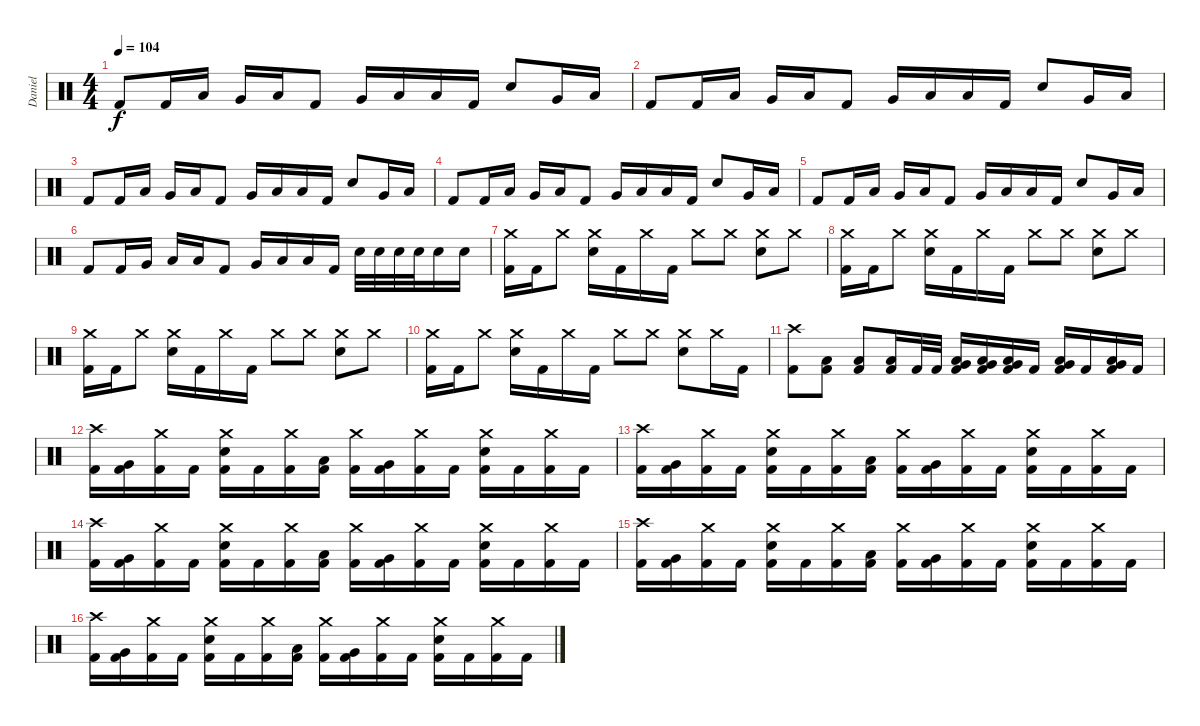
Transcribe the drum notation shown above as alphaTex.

\track ("Daniel" "Daniel") {instrument percussion}
\staff {score}
\articulation defaults
\ts (4 4)
\tempo 104
\clef neutral
\ks c "Kick (hit) 2".8{dy f} "Kick (hit) 2".16 "Low Tom (hit)".16 "Very Low Tom (hit)".16 "Low Tom (hit)".16 "Kick (hit) 2".8 "Very Low Tom (hit)".16 "Low Tom (hit)".16 "Low Floor Tom (hit)".16 "Kick (hit) 2".16 "Snare (hit) 2".8 "Very Low Tom (hit)".16 "Low Tom (hit)".16
|
"Kick (hit) 2".8 "Kick (hit) 2".16 "Low Tom (hit)".16 "Very Low Tom (hit)".16 "Low Tom (hit)".16 "Kick (hit) 2".8 "Very Low Tom (hit)".16 "Low Tom (hit)".16 "Low Floor Tom (hit)".16 "Kick (hit) 2".16 "Snare (hit) 2".8 "Very Low Tom (hit)".16 "Low Tom (hit)".16 |
"Kick (hit) 2".8 "Kick (hit) 2".16 "Low Tom (hit)".16 "Very Low Tom (hit)".16 "Low Tom (hit)".16 "Kick (hit) 2".8 "Very Low Tom (hit)".16 "Low Tom (hit)".16 "Low Floor Tom (hit)".16 "Kick (hit) 2".16 "Snare (hit) 2".8 "Very Low Tom (hit)".16 "Low Tom (hit)".16 |
"Kick (hit) 2".8 "Kick (hit) 2".16 "Low Tom (hit)".16 "Very Low Tom (hit)".16 "Low Tom (hit)".16 "Kick (hit) 2".8 "Very Low Tom (hit)".16 "Low Tom (hit)".16 "Low Floor Tom (hit)".16 "Kick (hit) 2".16 "Snare (hit) 2".8 "Very Low Tom (hit)".16 "Low Tom (hit)".16 |
"Kick (hit) 2".8 "Kick (hit) 2".16 "Low Tom (hit)".16 "Very Low Tom (hit)".16 "Low Tom (hit)".16 "Kick (hit) 2".8 "Very Low Tom (hit)".16 "Low Tom (hit)".16 "Low Floor Tom (hit)".16 "Kick (hit) 2".16 "Snare (hit) 2".8 "Very Low Tom (hit)".16 "Low Tom (hit)".16 |
"Kick (hit) 2".8 "Kick (hit) 2".16 "Very Low Tom (hit)".16 "Low Tom (hit)".16 "Low Tom (hit)".16 "Kick (hit) 2".8 "Very Low Tom (hit)".16 "Low Tom (hit)".16 "Low Floor Tom (hit)".16 "Kick (hit) 2".16 "Snare (hit) 2".32 "Snare (hit) 2".32 "Snare (hit) 2".32 "Snare (hit) 2".32 "Snare (hit) 2".16 "Snare (hit) 2".16 |
("Crash medium (hit)" "Kick (hit) 2").16 "Kick (hit) 2".16 "Crash medium (hit)".8 ("Crash medium (hit)" "Snare (hit) 2").16 "Kick (hit) 2".16 "Crash medium (hit)".16 "Kick (hit) 2".16 "Crash medium (hit)".8 "Crash medium (hit)".8 ("Crash medium (hit)" "Snare (hit) 2").8 "Crash medium (hit)".8 |
("Crash medium (hit)" "Kick (hit) 2").16 "Kick (hit) 2".16 "Crash medium (hit)".8 ("Crash medium (hit)" "Snare (hit) 2").16 "Kick (hit) 2".16 "Crash medium (hit)".16 "Kick (hit) 2".16 "Crash medium (hit)".8 "Crash medium (hit)".8 ("Crash medium (hit)" "Snare (hit) 2").8 "Crash medium (hit)".8 |
("Crash medium (hit)" "Kick (hit) 2").16 "Kick (hit) 2".16 "Crash medium (hit)".8 ("Crash medium (hit)" "Snare (hit) 2").16 "Kick (hit) 2".16 "Crash medium (hit)".16 "Kick (hit) 2".16 "Crash medium (hit)".8 "Crash medium (hit)".8 ("Crash medium (hit)" "Snare (hit) 2").8 "Crash medium (hit)".8 |
("Crash medium (hit)" "Kick (hit) 2").16 "Kick (hit) 2".16 "Crash medium (hit)".8 ("Crash medium (hit)" "Snare (hit) 2").16 "Kick (hit) 2".16 "Crash medium (hit)".16 "Kick (hit) 2".16 "Crash medium (hit)".8 "Crash medium (hit)".8 ("Crash medium (hit)" "Snare (hit) 2").8 "Crash medium (hit)".16 "Kick (hit) 2".16 |
("Crash high (hit)" "Kick (hit) 2").8 ("Low Floor Tom (hit)" "Kick (hit) 2").8 ("Low Floor Tom (hit)" "Kick (hit) 2").8 ("Low Floor Tom (hit)" "Kick (hit) 2").16 "Kick (hit) 2".32 "Kick (hit) 2".32 ("Low Tom (hit)" "Very Low Tom (hit)" "Kick (hit) 2").16 ("Low Tom (hit)" "Very Low Tom (hit)" "Kick (hit) 2").16 ("Low Tom (hit)" "Very Low Tom (hit)" "Kick (hit) 2").16 "Kick (hit) 2".16 ("Low Tom (hit)" "Very Low Tom (hit)" "Kick (hit) 2").16 "Kick (hit) 2".16 ("Very Low Tom (hit)" "Low Floor Tom (hit)" "Kick (hit) 2").16 "Kick (hit) 2".16 |
("Crash high (hit)" "Kick (hit) 2").16 ("Very Low Tom (hit)" "Kick (hit) 2").16 ("Crash medium (hit)" "Kick (hit) 2").16 "Kick (hit) 2".16 ("Crash medium (hit)" "Snare (hit) 2" "Kick (hit) 2").16 "Kick (hit) 2".16 ("Crash medium (hit)" "Kick (hit) 2").16 ("Low Tom (hit)" "Kick (hit) 2").16 ("Crash medium (hit)" "Kick (hit) 2").16 ("Very Low Tom (hit)" "Kick (hit) 2").16 ("Crash medium (hit)" "Kick (hit) 2").16 "Kick (hit) 2".16 ("Crash medium (hit)" "Snare (hit) 2" "Kick (hit) 2").16 "Kick (hit) 2".16 ("Crash medium (hit)" "Kick (hit) 2").16 "Kick (hit) 2".16 |
("Crash high (hit)" "Kick (hit) 2").16 ("Very Low Tom (hit)" "Kick (hit) 2").16 ("Crash medium (hit)" "Kick (hit) 2").16 "Kick (hit) 2".16 ("Crash medium (hit)" "Snare (hit) 2" "Kick (hit) 2").16 "Kick (hit) 2".16 ("Crash medium (hit)" "Kick (hit) 2").16 ("Low Tom (hit)" "Kick (hit) 2").16 ("Crash medium (hit)" "Kick (hit) 2").16 ("Very Low Tom (hit)" "Kick (hit) 2").16 ("Crash medium (hit)" "Kick (hit) 2").16 "Kick (hit) 2".16 ("Crash medium (hit)" "Snare (hit) 2" "Kick (hit) 2").16 "Kick (hit) 2".16 ("Crash medium (hit)" "Kick (hit) 2").16 "Kick (hit) 2".16 |
("Crash high (hit)" "Kick (hit) 2").16 ("Very Low Tom (hit)" "Kick (hit) 2").16 ("Crash medium (hit)" "Kick (hit) 2").16 "Kick (hit) 2".16 ("Crash medium (hit)" "Snare (hit) 2" "Kick (hit) 2").16 "Kick (hit) 2".16 ("Crash medium (hit)" "Kick (hit) 2").16 ("Low Tom (hit)" "Kick (hit) 2").16 ("Crash medium (hit)" "Kick (hit) 2").16 ("Very Low Tom (hit)" "Kick (hit) 2").16 ("Crash medium (hit)" "Kick (hit) 2").16 "Kick (hit) 2".16 ("Crash medium (hit)" "Snare (hit) 2" "Kick (hit) 2").16 "Kick (hit) 2".16 ("Crash medium (hit)" "Kick (hit) 2").16 "Kick (hit) 2".16 |
("Crash high (hit)" "Kick (hit) 2").16 ("Very Low Tom (hit)" "Kick (hit) 2").16 ("Crash medium (hit)" "Kick (hit) 2").16 "Kick (hit) 2".16 ("Crash medium (hit)" "Snare (hit) 2" "Kick (hit) 2").16 "Kick (hit) 2".16 ("Crash medium (hit)" "Kick (hit) 2").16 ("Low Tom (hit)" "Kick (hit) 2").16 ("Crash medium (hit)" "Kick (hit) 2").16 ("Very Low Tom (hit)" "Kick (hit) 2").16 ("Crash medium (hit)" "Kick (hit) 2").16 "Kick (hit) 2".16 ("Crash medium (hit)" "Snare (hit) 2" "Kick (hit) 2").16 "Kick (hit) 2".16 ("Crash medium (hit)" "Kick (hit) 2").16 "Kick (hit) 2".16 |
("Crash high (hit)" "Kick (hit) 2").16 ("Very Low Tom (hit)" "Kick (hit) 2").16 ("Crash medium (hit)" "Kick (hit) 2").16 "Kick (hit) 2".16 ("Crash medium (hit)" "Snare (hit) 2" "Kick (hit) 2").16 "Kick (hit) 2".16 ("Crash medium (hit)" "Kick (hit) 2").16 ("Low Tom (hit)" "Kick (hit) 2").16 ("Crash medium (hit)" "Kick (hit) 2").16 ("Very Low Tom (hit)" "Kick (hit) 2").16 ("Crash medium (hit)" "Kick (hit) 2").16 "Kick (hit) 2".16 ("Crash medium (hit)" "Snare (hit) 2" "Kick (hit) 2").16 "Kick (hit) 2".16 ("Crash medium (hit)" "Kick (hit) 2").16 "Kick (hit) 2".16
